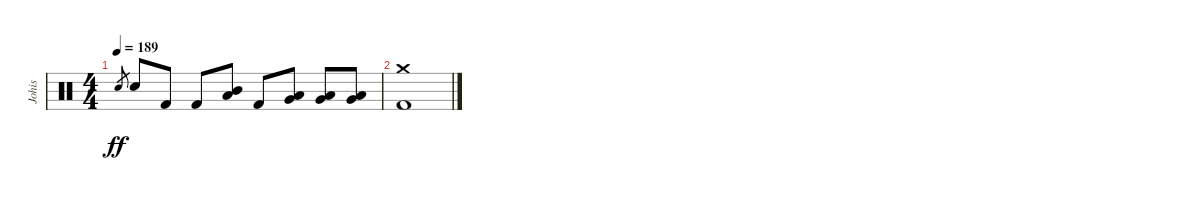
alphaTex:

\track ("Johis" "Johis") {instrument percussion}
\staff {score}
\articulation defaults
\ts (4 4)
\tempo 189
\clef neutral
\ks c "Electric Snare (hit)".8{gr dy ff} "Electric Snare (hit)".8 "Kick (hit) 2".8 "Kick (hit) 2".8
("Low Tom (hit)" "Mid Tom (hit)").8 "Kick (hit) 2".8 ("Low Tom (hit)" "Very Low Tom (hit)").8 ("Low Tom (hit)" "Very Low Tom (hit)").8 ("Low Tom (hit)" "Very Low Tom (hit)").8 |
("Crash medium (hit)" "Kick (hit) 2").1
